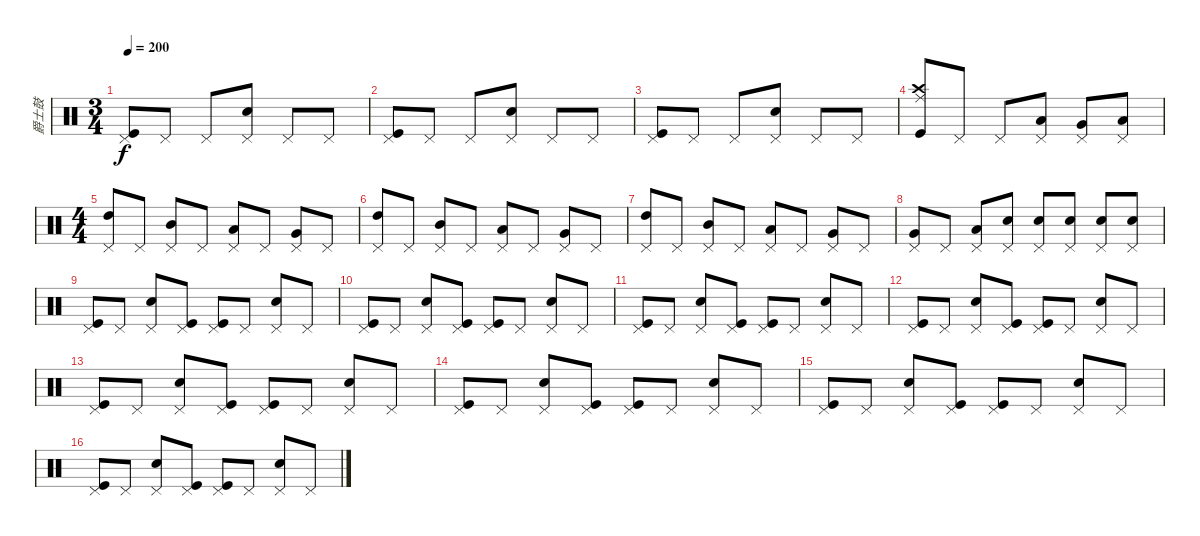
\track ("爵士鼓" "爵士鼓") {instrument percussion}
\staff {score}
\articulation defaults
\ts (3 4)
\tempo 200
\clef neutral
\ks c
("Pedal Hi-Hat (hit)" "Kick (hit)").8{dy f} "Pedal Hi-Hat (hit)".8 "Pedal Hi-Hat (hit)".8 ("Pedal Hi-Hat (hit)" "Electric Snare (hit)").8 "Pedal Hi-Hat (hit)".8 "Pedal Hi-Hat (hit)".8 |
("Pedal Hi-Hat (hit)" "Kick (hit)").8 "Pedal Hi-Hat (hit)".8 "Pedal Hi-Hat (hit)".8 ("Pedal Hi-Hat (hit)" "Electric Snare (hit)").8 "Pedal Hi-Hat (hit)".8 "Pedal Hi-Hat (hit)".8 |
("Pedal Hi-Hat (hit)" "Kick (hit)").8 "Pedal Hi-Hat (hit)".8 "Pedal Hi-Hat (hit)".8 ("Pedal Hi-Hat (hit)" "Electric Snare (hit)").8 "Pedal Hi-Hat (hit)".8 "Pedal Hi-Hat (hit)".8 |
("Crash high (hit)" "Ride (middle)" "Kick (hit)").8 "Pedal Hi-Hat (hit)".8 "Pedal Hi-Hat (hit)".8 ("Pedal Hi-Hat (hit)" "Low Tom (hit)").8 ("Pedal Hi-Hat (hit)" "Very Low Tom (hit)").8 ("Pedal Hi-Hat (hit)" "Low Floor Tom (hit)").8 |
\ts (4 4)
("Pedal Hi-Hat (hit)" "High Tom (hit)").8 "Pedal Hi-Hat (hit)".8 ("Pedal Hi-Hat (hit)" "Mid Tom (hit)").8 "Pedal Hi-Hat (hit)".8 ("Pedal Hi-Hat (hit)" "Low Tom (hit)").8 "Pedal Hi-Hat (hit)".8 ("Pedal Hi-Hat (hit)" "Very Low Tom (hit)").8 "Pedal Hi-Hat (hit)".8 |
("Pedal Hi-Hat (hit)" "High Tom (hit)").8 "Pedal Hi-Hat (hit)".8 ("Pedal Hi-Hat (hit)" "Mid Tom (hit)").8 "Pedal Hi-Hat (hit)".8 ("Pedal Hi-Hat (hit)" "Low Tom (hit)").8 "Pedal Hi-Hat (hit)".8 ("Pedal Hi-Hat (hit)" "Very Low Tom (hit)").8 "Pedal Hi-Hat (hit)".8 |
("Pedal Hi-Hat (hit)" "High Tom (hit)").8 "Pedal Hi-Hat (hit)".8 ("Pedal Hi-Hat (hit)" "Mid Tom (hit)").8 "Pedal Hi-Hat (hit)".8 ("Pedal Hi-Hat (hit)" "Low Tom (hit)").8 "Pedal Hi-Hat (hit)".8 ("Pedal Hi-Hat (hit)" "Very Low Tom (hit)").8 "Pedal Hi-Hat (hit)".8 |
("Pedal Hi-Hat (hit)" "Very Low Tom (hit)").8 "Pedal Hi-Hat (hit)".8 ("Pedal Hi-Hat (hit)" "Low Floor Tom (hit)").8 ("Pedal Hi-Hat (hit)" "Electric Snare (hit)").8 ("Pedal Hi-Hat (hit)" "Electric Snare (hit)").8 ("Pedal Hi-Hat (hit)" "Electric Snare (hit)").8 ("Pedal Hi-Hat (hit)" "Electric Snare (hit)").8 ("Pedal Hi-Hat (hit)" "Electric Snare (hit)").8 |
("Pedal Hi-Hat (hit)" "Kick (hit)").8 "Pedal Hi-Hat (hit)".8 ("Pedal Hi-Hat (hit)" "Electric Snare (hit)").8 ("Pedal Hi-Hat (hit)" "Kick (hit)").8 ("Pedal Hi-Hat (hit)" "Kick (hit)").8 "Pedal Hi-Hat (hit)".8 ("Pedal Hi-Hat (hit)" "Electric Snare (hit)").8 "Pedal Hi-Hat (hit)".8 |
("Pedal Hi-Hat (hit)" "Kick (hit)").8 "Pedal Hi-Hat (hit)".8 ("Pedal Hi-Hat (hit)" "Electric Snare (hit)").8 ("Pedal Hi-Hat (hit)" "Kick (hit)").8 ("Pedal Hi-Hat (hit)" "Kick (hit)").8 "Pedal Hi-Hat (hit)".8 ("Pedal Hi-Hat (hit)" "Electric Snare (hit)").8 "Pedal Hi-Hat (hit)".8 |
("Pedal Hi-Hat (hit)" "Kick (hit)").8 "Pedal Hi-Hat (hit)".8 ("Pedal Hi-Hat (hit)" "Electric Snare (hit)").8 ("Pedal Hi-Hat (hit)" "Kick (hit)").8 ("Pedal Hi-Hat (hit)" "Kick (hit)").8 "Pedal Hi-Hat (hit)".8 ("Pedal Hi-Hat (hit)" "Electric Snare (hit)").8 "Pedal Hi-Hat (hit)".8 |
("Pedal Hi-Hat (hit)" "Kick (hit)").8 "Pedal Hi-Hat (hit)".8 ("Pedal Hi-Hat (hit)" "Electric Snare (hit)").8 ("Pedal Hi-Hat (hit)" "Kick (hit)").8 ("Pedal Hi-Hat (hit)" "Kick (hit)").8 "Pedal Hi-Hat (hit)".8 ("Pedal Hi-Hat (hit)" "Electric Snare (hit)").8 "Pedal Hi-Hat (hit)".8 |
("Pedal Hi-Hat (hit)" "Kick (hit)").8 "Pedal Hi-Hat (hit)".8 ("Pedal Hi-Hat (hit)" "Electric Snare (hit)").8 ("Pedal Hi-Hat (hit)" "Kick (hit)").8 ("Pedal Hi-Hat (hit)" "Kick (hit)").8 "Pedal Hi-Hat (hit)".8 ("Pedal Hi-Hat (hit)" "Electric Snare (hit)").8 "Pedal Hi-Hat (hit)".8 |
("Pedal Hi-Hat (hit)" "Kick (hit)").8 "Pedal Hi-Hat (hit)".8 ("Pedal Hi-Hat (hit)" "Electric Snare (hit)").8 ("Pedal Hi-Hat (hit)" "Kick (hit)").8 ("Pedal Hi-Hat (hit)" "Kick (hit)").8 "Pedal Hi-Hat (hit)".8 ("Pedal Hi-Hat (hit)" "Electric Snare (hit)").8 "Pedal Hi-Hat (hit)".8 |
("Pedal Hi-Hat (hit)" "Kick (hit)").8 "Pedal Hi-Hat (hit)".8 ("Pedal Hi-Hat (hit)" "Electric Snare (hit)").8 ("Pedal Hi-Hat (hit)" "Kick (hit)").8 ("Pedal Hi-Hat (hit)" "Kick (hit)").8 "Pedal Hi-Hat (hit)".8 ("Pedal Hi-Hat (hit)" "Electric Snare (hit)").8 "Pedal Hi-Hat (hit)".8 |
("Pedal Hi-Hat (hit)" "Kick (hit)").8 "Pedal Hi-Hat (hit)".8 ("Pedal Hi-Hat (hit)" "Electric Snare (hit)").8 ("Pedal Hi-Hat (hit)" "Kick (hit)").8 ("Pedal Hi-Hat (hit)" "Kick (hit)").8 "Pedal Hi-Hat (hit)".8 ("Pedal Hi-Hat (hit)" "Electric Snare (hit)").8 "Pedal Hi-Hat (hit)".8
